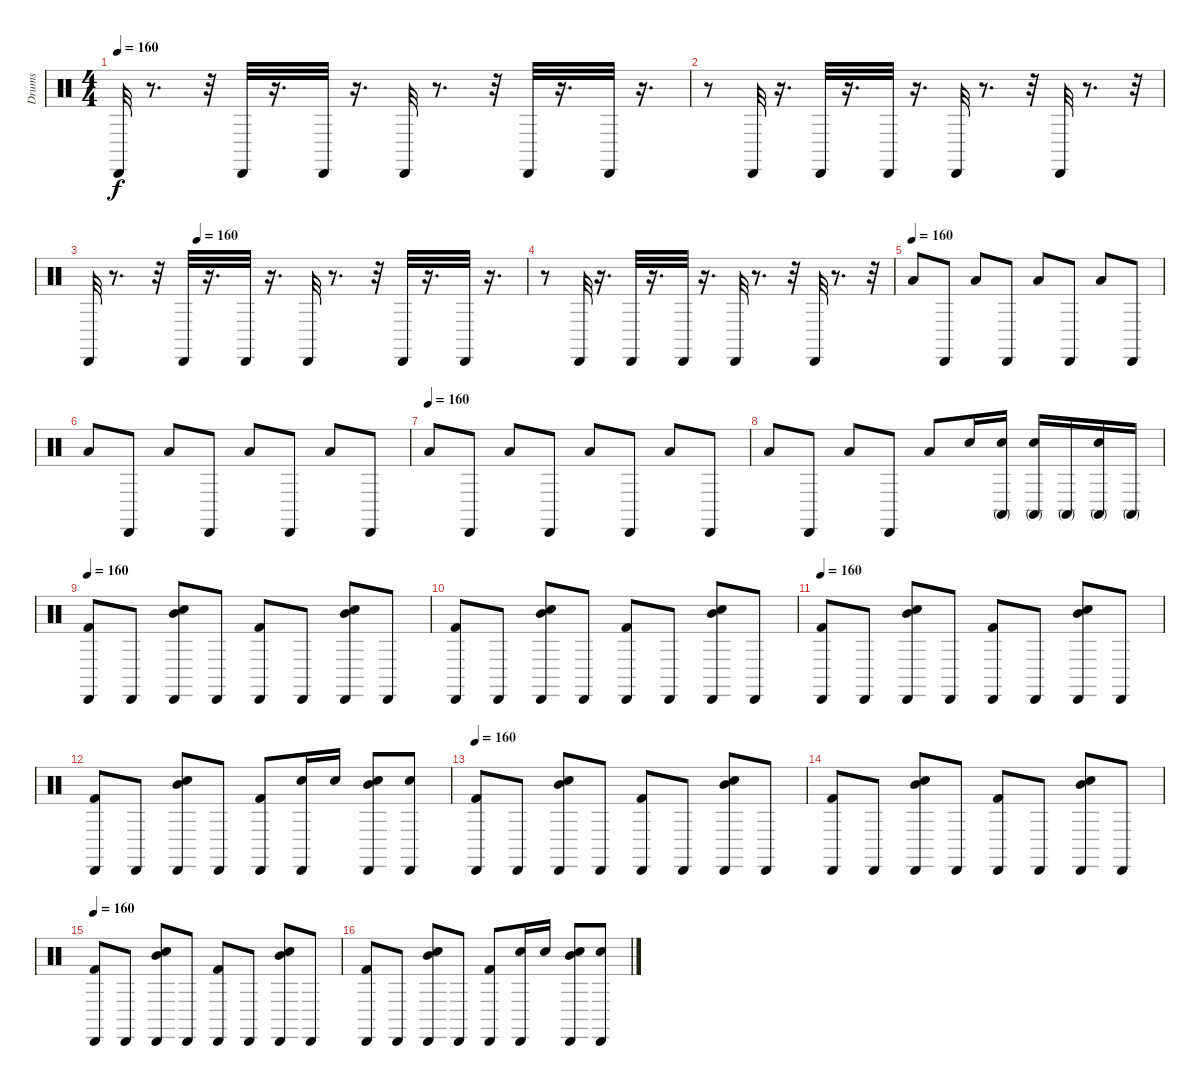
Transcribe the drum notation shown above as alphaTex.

\track ("Drums" "Drums") {instrument percussion}
\staff {score}
\articulation defaults
\ts (4 4)
\tempo 160
\clef neutral
\ks c "Cabasa (hit)".32{dy f}
r.8{d} r.32 "Cabasa (hit)".32 r.16{d} "Cabasa (hit)".32 r.16{d} "Cabasa (hit)".32 r.8{d} r.32 "Cabasa (hit)".32 r.16{d} "Cabasa (hit)".32 r.16{d} |
r.8 "Cabasa (hit)".32 r.16{d} "Cabasa (hit)".32 r.16{d} "Cabasa (hit)".32 r.16{d} "Cabasa (hit)".32 r.8{d} r.32 "Cabasa (hit)".32 r.8{d} r.32 |
\tempo (160 0.25)
"Cabasa (hit)".32 r.8{d} r.32 "Cabasa (hit)".32 r.16{d} "Cabasa (hit)".32 r.16{d} "Cabasa (hit)".32 r.8{d} r.32 "Cabasa (hit)".32 r.16{d} "Cabasa (hit)".32 r.16{d} |
r.8 "Cabasa (hit)".32 r.16{d} "Cabasa (hit)".32 r.16{d} "Cabasa (hit)".32 r.16{d} "Cabasa (hit)".32 r.8{d} r.32 "Cabasa (hit)".32 r.8{d} r.32 |
\tempo (160)
"Low Floor Tom (hit)".8 "Cabasa (hit)".8 "Low Floor Tom (hit)".8 "Cabasa (hit)".8 "Low Floor Tom (hit)".8 "Cabasa (hit)".8 "Low Floor Tom (hit)".8 "Cabasa (hit)".8 |
"Low Floor Tom (hit)".8 "Cabasa (hit)".8 "Low Floor Tom (hit)".8 "Cabasa (hit)".8 "Low Floor Tom (hit)".8 "Cabasa (hit)".8 "Low Floor Tom (hit)".8 "Cabasa (hit)".8 |
\tempo (160)
"Low Floor Tom (hit)".8 "Cabasa (hit)".8 "Low Floor Tom (hit)".8 "Cabasa (hit)".8 "Low Floor Tom (hit)".8 "Cabasa (hit)".8 "Low Floor Tom (hit)".8 "Cabasa (hit)".8 |
"Low Floor Tom (hit)".8 "Cabasa (hit)".8 "Low Floor Tom (hit)".8 "Cabasa (hit)".8 "Low Floor Tom (hit)".8 "Electric Snare (hit)".16 ("Electric Snare (hit)" "Conga high (mute)").16 ("Electric Snare (hit)" "Conga high (mute)").16 "Conga high (mute)".16 ("Electric Snare (hit)" "Conga high (mute)").16 "Conga high (mute)".16 |
\tempo 160
("Kick (hit) 2" "Cabasa (hit)").8 "Cabasa (hit)".8 ("Electric Snare (hit)" "Mid Tom (hit)" "Cabasa (hit)").8 "Cabasa (hit)".8 ("Cabasa (hit)" "Kick (hit) 2").8 "Cabasa (hit)".8 ("Cabasa (hit)" "Electric Snare (hit)" "Mid Tom (hit)").8 "Cabasa (hit)".8 |
("Cabasa (hit)" "Kick (hit) 2").8 "Cabasa (hit)".8 ("Electric Snare (hit)" "Cabasa (hit)" "Mid Tom (hit)").8 "Cabasa (hit)".8 ("Cabasa (hit)" "Kick (hit) 2").8 "Cabasa (hit)".8 ("Mid Tom (hit)" "Electric Snare (hit)" "Cabasa (hit)").8 "Cabasa (hit)".8 |
\tempo 160
("Kick (hit) 2" "Cabasa (hit)").8 "Cabasa (hit)".8 ("Electric Snare (hit)" "Mid Tom (hit)" "Cabasa (hit)").8 "Cabasa (hit)".8 ("Cabasa (hit)" "Kick (hit) 2").8 "Cabasa (hit)".8 ("Cabasa (hit)" "Electric Snare (hit)" "Mid Tom (hit)").8 "Cabasa (hit)".8 |
("Cabasa (hit)" "Kick (hit) 2").8 "Cabasa (hit)".8 ("Electric Snare (hit)" "Cabasa (hit)" "Mid Tom (hit)").8 "Cabasa (hit)".8 ("Cabasa (hit)" "Kick (hit) 2").8 ("Electric Snare (hit)" "Cabasa (hit)").16 "Electric Snare (hit)".16 ("Electric Snare (hit)" "Mid Tom (hit)" "Cabasa (hit)").8 ("Electric Snare (hit)" "Cabasa (hit)").8 |
\tempo 160
("Kick (hit) 2" "Cabasa (hit)").8 "Cabasa (hit)".8 ("Electric Snare (hit)" "Mid Tom (hit)" "Cabasa (hit)").8 "Cabasa (hit)".8 ("Cabasa (hit)" "Kick (hit) 2").8 "Cabasa (hit)".8 ("Cabasa (hit)" "Electric Snare (hit)" "Mid Tom (hit)").8 "Cabasa (hit)".8 |
("Cabasa (hit)" "Kick (hit) 2").8 "Cabasa (hit)".8 ("Electric Snare (hit)" "Cabasa (hit)" "Mid Tom (hit)").8 "Cabasa (hit)".8 ("Cabasa (hit)" "Kick (hit) 2").8 "Cabasa (hit)".8 ("Mid Tom (hit)" "Electric Snare (hit)" "Cabasa (hit)").8 "Cabasa (hit)".8 |
\tempo 160
("Kick (hit) 2" "Cabasa (hit)").8 "Cabasa (hit)".8 ("Electric Snare (hit)" "Mid Tom (hit)" "Cabasa (hit)").8 "Cabasa (hit)".8 ("Cabasa (hit)" "Kick (hit) 2").8 "Cabasa (hit)".8 ("Cabasa (hit)" "Electric Snare (hit)" "Mid Tom (hit)").8 "Cabasa (hit)".8 |
("Cabasa (hit)" "Kick (hit) 2").8 "Cabasa (hit)".8 ("Electric Snare (hit)" "Cabasa (hit)" "Mid Tom (hit)").8 "Cabasa (hit)".8 ("Cabasa (hit)" "Kick (hit) 2").8 ("Electric Snare (hit)" "Cabasa (hit)").16 "Electric Snare (hit)".16 ("Electric Snare (hit)" "Mid Tom (hit)" "Cabasa (hit)").8 ("Electric Snare (hit)" "Cabasa (hit)").8
